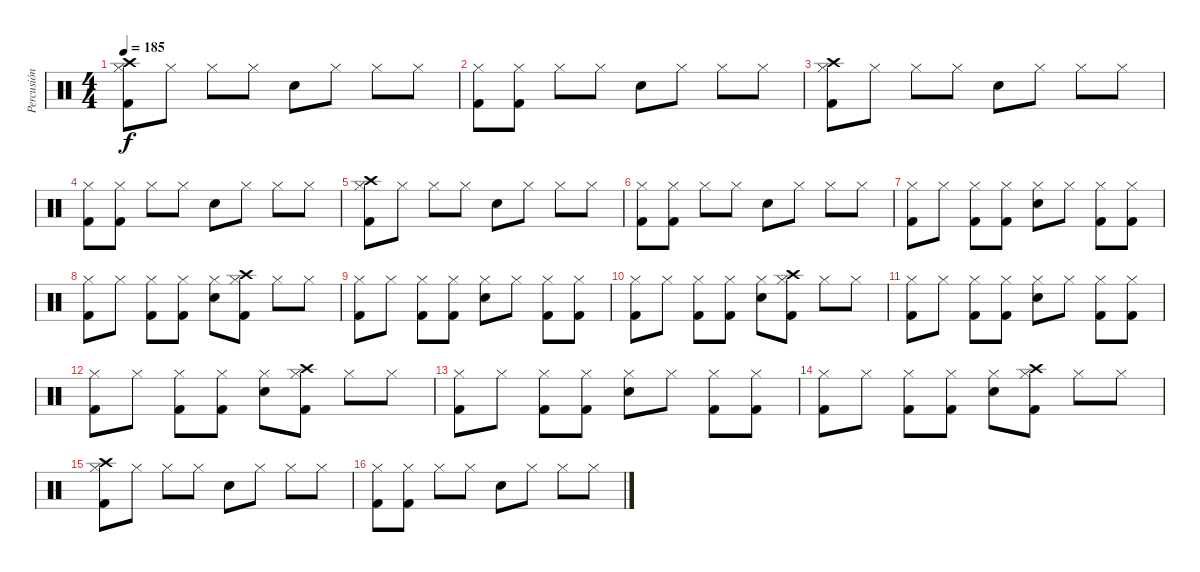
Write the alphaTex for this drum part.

\track ("Percusión" "Percusión") {instrument percussion}
\staff {score}
\articulation defaults
\ts (4 4)
\tempo 185
\clef neutral
\ks c
("Crash high (hit)" "Hi-Hat (closed)" "Kick (hit) 2").8{dy f} "Hi-Hat (closed)".8 "Hi-Hat (closed)".8 "Hi-Hat (closed)".8 "Electric Snare (hit)".8 "Hi-Hat (closed)".8 "Hi-Hat (closed)".8 "Hi-Hat (closed)".8 |
("Hi-Hat (closed)" "Kick (hit) 2").8 ("Hi-Hat (closed)" "Kick (hit) 2").8 "Hi-Hat (closed)".8 "Hi-Hat (closed)".8 "Electric Snare (hit)".8 "Hi-Hat (closed)".8 "Hi-Hat (closed)".8 "Hi-Hat (closed)".8 |
("Crash high (hit)" "Hi-Hat (closed)" "Kick (hit) 2").8 "Hi-Hat (closed)".8 "Hi-Hat (closed)".8 "Hi-Hat (closed)".8 "Electric Snare (hit)".8 "Hi-Hat (closed)".8 "Hi-Hat (closed)".8 "Hi-Hat (closed)".8 |
("Hi-Hat (closed)" "Kick (hit) 2").8 ("Hi-Hat (closed)" "Kick (hit) 2").8 "Hi-Hat (closed)".8 "Hi-Hat (closed)".8 "Electric Snare (hit)".8 "Hi-Hat (closed)".8 "Hi-Hat (closed)".8 "Hi-Hat (closed)".8 |
("Crash high (hit)" "Hi-Hat (closed)" "Kick (hit) 2").8 "Hi-Hat (closed)".8 "Hi-Hat (closed)".8 "Hi-Hat (closed)".8 "Electric Snare (hit)".8 "Hi-Hat (closed)".8 "Hi-Hat (closed)".8 "Hi-Hat (closed)".8 |
("Hi-Hat (closed)" "Kick (hit) 2").8 ("Hi-Hat (closed)" "Kick (hit) 2").8 "Hi-Hat (closed)".8 "Hi-Hat (closed)".8 "Electric Snare (hit)".8 "Hi-Hat (closed)".8 "Hi-Hat (closed)".8 "Hi-Hat (closed)".8 |
("Hi-Hat (closed)" "Kick (hit) 2").8 "Hi-Hat (closed)".8 ("Hi-Hat (closed)" "Kick (hit) 2").8 ("Hi-Hat (closed)" "Kick (hit) 2").8 ("Electric Snare (hit)" "Hi-Hat (closed)").8 "Hi-Hat (closed)".8 ("Hi-Hat (closed)" "Kick (hit) 2").8 ("Hi-Hat (closed)" "Kick (hit) 2").8 |
("Hi-Hat (closed)" "Kick (hit) 2").8 "Hi-Hat (closed)".8 ("Hi-Hat (closed)" "Kick (hit) 2").8 ("Hi-Hat (closed)" "Kick (hit) 2").8 ("Electric Snare (hit)" "Hi-Hat (closed)").8 ("Crash high (hit)" "Hi-Hat (closed)" "Kick (hit) 2").8 "Hi-Hat (closed)".8 "Hi-Hat (closed)".8 |
("Hi-Hat (closed)" "Kick (hit) 2").8 "Hi-Hat (closed)".8 ("Hi-Hat (closed)" "Kick (hit) 2").8 ("Hi-Hat (closed)" "Kick (hit) 2").8 ("Electric Snare (hit)" "Hi-Hat (closed)").8 "Hi-Hat (closed)".8 ("Hi-Hat (closed)" "Kick (hit) 2").8 ("Hi-Hat (closed)" "Kick (hit) 2").8 |
("Hi-Hat (closed)" "Kick (hit) 2").8 "Hi-Hat (closed)".8 ("Hi-Hat (closed)" "Kick (hit) 2").8 ("Hi-Hat (closed)" "Kick (hit) 2").8 ("Electric Snare (hit)" "Hi-Hat (closed)").8 ("Crash high (hit)" "Hi-Hat (closed)" "Kick (hit) 2").8 "Hi-Hat (closed)".8 "Hi-Hat (closed)".8 |
("Hi-Hat (closed)" "Kick (hit) 2").8 "Hi-Hat (closed)".8 ("Hi-Hat (closed)" "Kick (hit) 2").8 ("Hi-Hat (closed)" "Kick (hit) 2").8 ("Electric Snare (hit)" "Hi-Hat (closed)").8 "Hi-Hat (closed)".8 ("Hi-Hat (closed)" "Kick (hit) 2").8 ("Hi-Hat (closed)" "Kick (hit) 2").8 |
("Hi-Hat (closed)" "Kick (hit) 2").8 "Hi-Hat (closed)".8 ("Hi-Hat (closed)" "Kick (hit) 2").8 ("Hi-Hat (closed)" "Kick (hit) 2").8 ("Electric Snare (hit)" "Hi-Hat (closed)").8 ("Crash high (hit)" "Hi-Hat (closed)" "Kick (hit) 2").8 "Hi-Hat (closed)".8 "Hi-Hat (closed)".8 |
("Hi-Hat (closed)" "Kick (hit) 2").8 "Hi-Hat (closed)".8 ("Hi-Hat (closed)" "Kick (hit) 2").8 ("Hi-Hat (closed)" "Kick (hit) 2").8 ("Electric Snare (hit)" "Hi-Hat (closed)").8 "Hi-Hat (closed)".8 ("Hi-Hat (closed)" "Kick (hit) 2").8 ("Hi-Hat (closed)" "Kick (hit) 2").8 |
("Hi-Hat (closed)" "Kick (hit) 2").8 "Hi-Hat (closed)".8 ("Hi-Hat (closed)" "Kick (hit) 2").8 ("Hi-Hat (closed)" "Kick (hit) 2").8 ("Electric Snare (hit)" "Hi-Hat (closed)").8 ("Crash high (hit)" "Hi-Hat (closed)" "Kick (hit) 2").8 "Hi-Hat (closed)".8 "Hi-Hat (closed)".8 |
("Crash high (hit)" "Hi-Hat (closed)" "Kick (hit) 2").8 "Hi-Hat (closed)".8 "Hi-Hat (closed)".8 "Hi-Hat (closed)".8 "Electric Snare (hit)".8 "Hi-Hat (closed)".8 "Hi-Hat (closed)".8 "Hi-Hat (closed)".8 |
("Hi-Hat (closed)" "Kick (hit) 2").8 ("Hi-Hat (closed)" "Kick (hit) 2").8 "Hi-Hat (closed)".8 "Hi-Hat (closed)".8 "Electric Snare (hit)".8 "Hi-Hat (closed)".8 "Hi-Hat (closed)".8 "Hi-Hat (closed)".8
